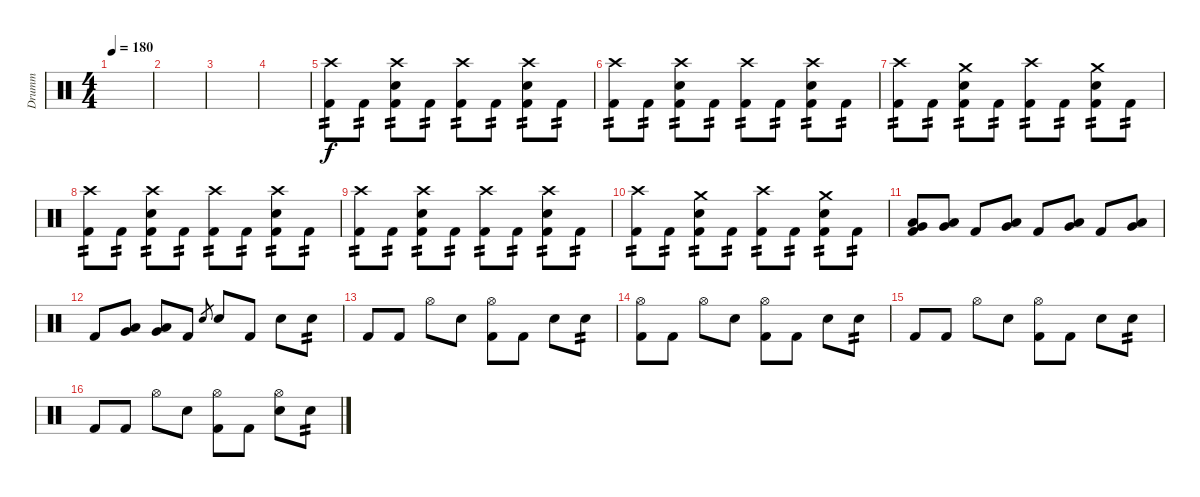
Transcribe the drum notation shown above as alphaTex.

\track ("Drumm" "Drumm") {instrument percussion}
\staff {score}
\articulation defaults
\ts (4 4)
\tempo 180
\clef neutral
\ks c
|
|
|
|
("Crash high (hit)" "Kick (hit) 2").8{tp 2} "Kick (hit) 2".8{tp 2} ("Crash high (hit)" "Snare (hit) 2" "Kick (hit) 2").8{tp 2} "Kick (hit) 2".8{tp 2} ("Crash high (hit)" "Kick (hit) 2").8{tp 2} "Kick (hit) 2".8{tp 2} ("Crash high (hit)" "Snare (hit) 2" "Kick (hit) 2").8{tp 2} "Kick (hit) 2".8{tp 2} |
("Crash high (hit)" "Kick (hit) 2").8{tp 2} "Kick (hit) 2".8{tp 2} ("Crash high (hit)" "Snare (hit) 2" "Kick (hit) 2").8{tp 2} "Kick (hit) 2".8{tp 2} ("Crash high (hit)" "Kick (hit) 2").8{tp 2} "Kick (hit) 2".8{tp 2} ("Crash high (hit)" "Snare (hit) 2" "Kick (hit) 2").8{tp 2} "Kick (hit) 2".8{tp 2} |
("Crash high (hit)" "Kick (hit) 2").8{tp 2} "Kick (hit) 2".8{tp 2} ("Crash medium (hit)" "Snare (hit) 2" "Kick (hit) 2").8{tp 2} "Kick (hit) 2".8{tp 2} ("Crash high (hit)" "Kick (hit) 2").8{tp 2} "Kick (hit) 2".8{tp 2} ("Crash medium (hit)" "Snare (hit) 2" "Kick (hit) 2").8{tp 2} "Kick (hit) 2".8{tp 2} |
("Crash high (hit)" "Kick (hit) 2").8{tp 2} "Kick (hit) 2".8{tp 2} ("Crash high (hit)" "Snare (hit) 2" "Kick (hit) 2").8{tp 2} "Kick (hit) 2".8{tp 2} ("Crash high (hit)" "Kick (hit) 2").8{tp 2} "Kick (hit) 2".8{tp 2} ("Crash high (hit)" "Snare (hit) 2" "Kick (hit) 2").8{tp 2} "Kick (hit) 2".8{tp 2} |
("Crash high (hit)" "Kick (hit) 2").8{tp 2} "Kick (hit) 2".8{tp 2} ("Crash high (hit)" "Snare (hit) 2" "Kick (hit) 2").8{tp 2} "Kick (hit) 2".8{tp 2} ("Crash high (hit)" "Kick (hit) 2").8{tp 2} "Kick (hit) 2".8{tp 2} ("Crash high (hit)" "Snare (hit) 2" "Kick (hit) 2").8{tp 2} "Kick (hit) 2".8{tp 2} |
("Crash high (hit)" "Kick (hit) 2").8{tp 2} "Kick (hit) 2".8{tp 2} ("Crash medium (hit)" "Snare (hit) 2" "Kick (hit) 2").8{tp 2} "Kick (hit) 2".8{tp 2} ("Crash high (hit)" "Kick (hit) 2").8{tp 2} "Kick (hit) 2".8{tp 2} ("Crash medium (hit)" "Snare (hit) 2" "Kick (hit) 2").8{tp 2} "Kick (hit) 2".8{tp 2} |
("Very Low Tom (hit)" "Low Tom (hit)" "Kick (hit) 2").8 ("Very Low Tom (hit)" "Low Tom (hit)").8 "Kick (hit) 2".8 ("Very Low Tom (hit)" "Low Tom (hit)").8 "Kick (hit) 2".8 ("Very Low Tom (hit)" "Low Tom (hit)").8 "Kick (hit) 2".8 ("Very Low Tom (hit)" "Low Tom (hit)").8 |
"Kick (hit) 2".8 ("Very Low Tom (hit)" "Low Tom (hit)").8 ("Very Low Tom (hit)" "Low Tom (hit)").8 "Kick (hit) 2".8 "Snare (hit) 2".8{gr} "Snare (hit) 2".8 "Kick (hit) 2".8 "Snare (hit) 2".8 "Snare (hit) 2".8{tp 2} |
"Kick (hit) 2".8 "Kick (hit) 2".8 "Hi-Hat (open)".8 "Snare (hit) 2".8 ("Hi-Hat (open)" "Kick (hit) 2").8 "Kick (hit) 2".8 "Snare (hit) 2".8 "Snare (hit) 2".8{tp 2} |
("Hi-Hat (open)" "Kick (hit) 2").8 "Kick (hit) 2".8 "Hi-Hat (open)".8 "Snare (hit) 2".8 ("Hi-Hat (open)" "Kick (hit) 2").8 "Kick (hit) 2".8 "Snare (hit) 2".8 "Snare (hit) 2".8{tp 2} |
"Kick (hit) 2".8 "Kick (hit) 2".8 "Hi-Hat (open)".8 "Snare (hit) 2".8 ("Hi-Hat (open)" "Kick (hit) 2").8 "Kick (hit) 2".8 "Snare (hit) 2".8 "Snare (hit) 2".8{tp 2} |
"Kick (hit) 2".8 "Kick (hit) 2".8 "Hi-Hat (open)".8 "Snare (hit) 2".8 ("Hi-Hat (open)" "Kick (hit) 2").8 "Kick (hit) 2".8 ("Hi-Hat (open)" "Snare (hit) 2").8 "Snare (hit) 2".8{tp 2}
